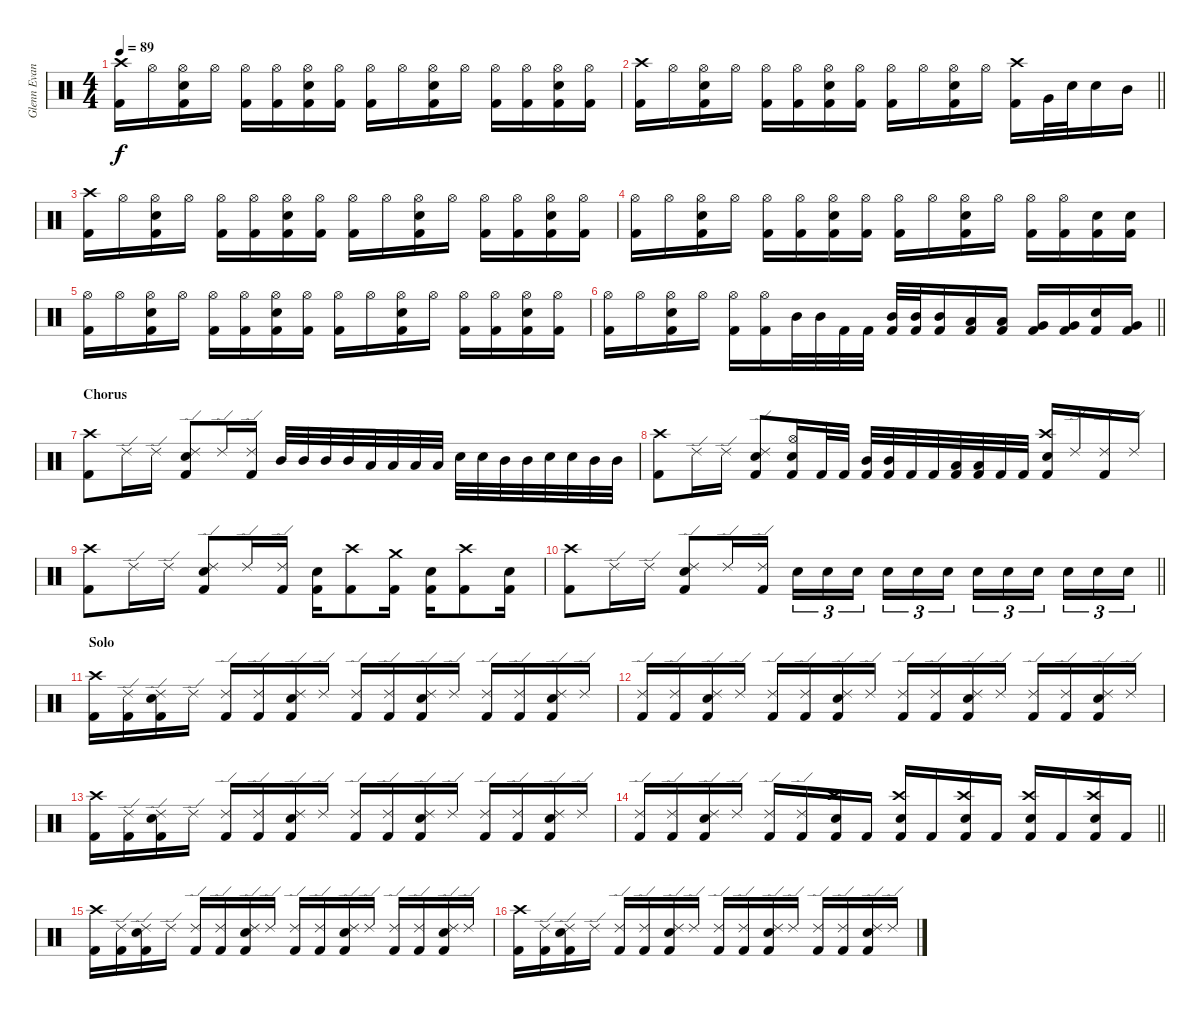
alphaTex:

\track ("Glenn Evans (Drums)" "Glenn Evan") {instrument percussion}
\staff {score}
\articulation defaults
\ts (4 4)
\tempo 89
\clef neutral
\ks c
("Kick (hit) 2" "Crash high (hit)").16{dy f} "Hi-Hat (open)".16 ("Kick (hit) 2" "Electric Snare (hit)" "Hi-Hat (open)").16 "Hi-Hat (open)".16 ("Kick (hit) 2" "Hi-Hat (open)").16 ("Kick (hit) 2" "Hi-Hat (open)").16 ("Kick (hit) 2" "Electric Snare (hit)" "Hi-Hat (open)").16 ("Kick (hit) 2" "Hi-Hat (open)").16 ("Kick (hit) 2" "Hi-Hat (open)").16 "Hi-Hat (open)".16 ("Kick (hit) 2" "Electric Snare (hit)" "Hi-Hat (open)").16 "Hi-Hat (open)".16 ("Kick (hit) 2" "Hi-Hat (open)").16 ("Kick (hit) 2" "Hi-Hat (open)").16 ("Kick (hit) 2" "Electric Snare (hit)" "Hi-Hat (open)").16 ("Kick (hit) 2" "Hi-Hat (open)").16 |
\barLineRight lightlight
("Kick (hit) 2" "Crash high (hit)").16 "Hi-Hat (open)".16 ("Kick (hit) 2" "Electric Snare (hit)" "Hi-Hat (open)").16 "Hi-Hat (open)".16 ("Kick (hit) 2" "Hi-Hat (open)").16 ("Kick (hit) 2" "Hi-Hat (open)").16 ("Kick (hit) 2" "Electric Snare (hit)" "Hi-Hat (open)").16 ("Kick (hit) 2" "Hi-Hat (open)").16 ("Kick (hit) 2" "Hi-Hat (open)").16 "Hi-Hat (open)".16 ("Kick (hit) 2" "Electric Snare (hit)" "Hi-Hat (open)").16 "Hi-Hat (open)".16 ("Kick (hit) 2" "Crash high (hit)").16 "Very Low Tom (hit)".32 "Electric Snare (hit)".32 "Electric Snare (hit)".16 "Mid Tom (hit)".16 |
("Kick (hit) 2" "Crash high (hit)").16 "Hi-Hat (open)".16 ("Kick (hit) 2" "Electric Snare (hit)" "Hi-Hat (open)").16 "Hi-Hat (open)".16 ("Kick (hit) 2" "Hi-Hat (open)").16 ("Kick (hit) 2" "Hi-Hat (open)").16 ("Kick (hit) 2" "Electric Snare (hit)" "Hi-Hat (open)").16 ("Kick (hit) 2" "Hi-Hat (open)").16 ("Kick (hit) 2" "Hi-Hat (open)").16 "Hi-Hat (open)".16 ("Kick (hit) 2" "Electric Snare (hit)" "Hi-Hat (open)").16 "Hi-Hat (open)".16 ("Kick (hit) 2" "Hi-Hat (open)").16 ("Kick (hit) 2" "Hi-Hat (open)").16 ("Kick (hit) 2" "Electric Snare (hit)" "Hi-Hat (open)").16 ("Kick (hit) 2" "Hi-Hat (open)").16 |
("Kick (hit) 2" "Hi-Hat (open)").16 "Hi-Hat (open)".16 ("Kick (hit) 2" "Electric Snare (hit)" "Hi-Hat (open)").16 "Hi-Hat (open)".16 ("Kick (hit) 2" "Hi-Hat (open)").16 ("Kick (hit) 2" "Hi-Hat (open)").16 ("Kick (hit) 2" "Electric Snare (hit)" "Hi-Hat (open)").16 ("Kick (hit) 2" "Hi-Hat (open)").16 ("Kick (hit) 2" "Hi-Hat (open)").16 "Hi-Hat (open)".16 ("Kick (hit) 2" "Electric Snare (hit)" "Hi-Hat (open)").16 "Hi-Hat (open)".16 ("Kick (hit) 2" "Hi-Hat (open)").16 ("Kick (hit) 2" "Hi-Hat (open)").16 ("Kick (hit) 2" "Electric Snare (hit)").16 ("Kick (hit) 2" "Electric Snare (hit)").16 |
("Kick (hit) 2" "Hi-Hat (open)").16 "Hi-Hat (open)".16 ("Kick (hit) 2" "Electric Snare (hit)" "Hi-Hat (open)").16 "Hi-Hat (open)".16 ("Kick (hit) 2" "Hi-Hat (open)").16 ("Kick (hit) 2" "Hi-Hat (open)").16 ("Kick (hit) 2" "Electric Snare (hit)" "Hi-Hat (open)").16 ("Kick (hit) 2" "Hi-Hat (open)").16 ("Kick (hit) 2" "Hi-Hat (open)").16 "Hi-Hat (open)".16 ("Kick (hit) 2" "Electric Snare (hit)" "Hi-Hat (open)").16 "Hi-Hat (open)".16 ("Kick (hit) 2" "Hi-Hat (open)").16 ("Kick (hit) 2" "Hi-Hat (open)").16 ("Kick (hit) 2" "Electric Snare (hit)" "Hi-Hat (open)").16 ("Kick (hit) 2" "Hi-Hat (open)").16 |
\barLineRight lightlight
("Kick (hit) 2" "Hi-Hat (open)").16 "Hi-Hat (open)".16 ("Kick (hit) 2" "Electric Snare (hit)" "Hi-Hat (open)").16 "Hi-Hat (open)".16 ("Kick (hit) 2" "Hi-Hat (open)").16 ("Kick (hit) 2" "Hi-Hat (open)").16 "Mid Tom (hit)".32 "Mid Tom (hit)".32 "Kick (hit) 2".32 "Kick (hit) 2".32 ("Kick (hit) 2" "Mid Tom (hit)").32 ("Kick (hit) 2" "Mid Tom (hit)").32 ("Kick (hit) 2" "Mid Tom (hit)").16 ("Kick (hit) 2" "Low Tom (hit)").16 ("Kick (hit) 2" "Low Tom (hit)").16 ("Kick (hit) 2" "Very Low Tom (hit)").16 ("Kick (hit) 2" "Very Low Tom (hit)").16 ("Kick (hit) 2" "Electric Snare (hit)").16 ("Kick (hit) 2" "Very Low Tom (hit)").16 |
\section ("" "Chorus")
("Kick (hit) 2" "Crash high (hit)").8 "Ride (edge) 2".16 "Ride (edge) 2".16 ("Kick (hit) 2" "Electric Snare (hit)" "Ride (edge) 2").8 "Ride (edge) 2".16 ("Kick (hit) 2" "Ride (edge) 2").16 "Mid Tom (hit)".32 "Mid Tom (hit)".32 "Mid Tom (hit)".32 "Mid Tom (hit)".32 "Low Tom (hit)".32 "Low Tom (hit)".32 "Low Tom (hit)".32 "Low Tom (hit)".32 "Electric Snare (hit)".32 "Electric Snare (hit)".32 "Mid Tom (hit)".32 "Mid Tom (hit)".32 "Electric Snare (hit)".32 "Electric Snare (hit)".32 "Mid Tom (hit)".32 "Mid Tom (hit)".32 |
("Kick (hit) 2" "Crash high (hit)").8 "Ride (edge) 2".16 "Ride (edge) 2".16 ("Kick (hit) 2" "Electric Snare (hit)" "Ride (edge) 2").8 ("Kick (hit) 2" "Electric Snare (hit)" "Hi-Hat (open)").16 "Kick (hit) 2".32 "Kick (hit) 2".32 ("Kick (hit) 2" "Mid Tom (hit)").32 ("Kick (hit) 2" "Mid Tom (hit)").32 "Kick (hit) 2".32 "Kick (hit) 2".32 ("Kick (hit) 2" "Low Tom (hit)").32 ("Kick (hit) 2" "Low Tom (hit)").32 "Kick (hit) 2".32 "Kick (hit) 2".32 ("Kick (hit) 2" "Electric Snare (hit)" "Crash high (hit)").16 "Ride (edge) 2".16 ("Kick (hit) 2" "Ride (edge) 2").16 "Ride (edge) 2".16 |
("Kick (hit) 2" "Crash high (hit)").8 "Ride (edge) 2".16 "Ride (edge) 2".16 ("Kick (hit) 2" "Electric Snare (hit)" "Ride (edge) 2").8 "Ride (edge) 2".16 ("Kick (hit) 2" "Ride (edge) 2").16 ("Kick (hit) 2" "Electric Snare (hit)").16 ("Kick (hit) 2" "Crash high (hit)").8 ("Kick (hit) 2" "Crash medium (hit)").16 ("Kick (hit) 2" "Electric Snare (hit)").16 ("Kick (hit) 2" "Crash high (hit)").8 ("Kick (hit) 2" "Electric Snare (hit)").16 |
\barLineRight lightlight
("Kick (hit) 2" "Crash high (hit)").8 "Ride (edge) 2".16 "Ride (edge) 2".16 ("Kick (hit) 2" "Electric Snare (hit)" "Ride (edge) 2").8 "Ride (edge) 2".16 ("Kick (hit) 2" "Ride (edge) 2").16 "Electric Snare (hit)".16{tu (3 2)} "Electric Snare (hit)".16{tu (3 2)} "Electric Snare (hit)".16{tu (3 2) beam splitsecondary} "Electric Snare (hit)".16{tu (3 2)} "Electric Snare (hit)".16{tu (3 2)} "Electric Snare (hit)".16{tu (3 2)} "Electric Snare (hit)".16{tu (3 2)} "Electric Snare (hit)".16{tu (3 2)} "Electric Snare (hit)".16{tu (3 2) beam splitsecondary} "Electric Snare (hit)".16{tu (3 2)} "Electric Snare (hit)".16{tu (3 2)} "Electric Snare (hit)".16{tu (3 2)} |
\section ("" "Solo")
("Kick (hit) 2" "Crash high (hit)").16 ("Kick (hit) 2" "Ride (edge) 2").16 ("Kick (hit) 2" "Electric Snare (hit)" "Ride (edge) 2").16 "Ride (edge) 2".16 ("Kick (hit) 2" "Ride (edge) 2").16 ("Kick (hit) 2" "Ride (edge) 2").16 ("Kick (hit) 2" "Electric Snare (hit)" "Ride (edge) 2").16 "Ride (edge) 2".16 ("Kick (hit) 2" "Ride (edge) 2").16 ("Kick (hit) 2" "Ride (edge) 2").16 ("Kick (hit) 2" "Electric Snare (hit)" "Ride (edge) 2").16 "Ride (edge) 2".16 ("Kick (hit) 2" "Ride (edge) 2").16 ("Kick (hit) 2" "Ride (edge) 2").16 ("Kick (hit) 2" "Electric Snare (hit)" "Ride (edge) 2").16 "Ride (edge) 2".16 |
("Kick (hit) 2" "Ride (edge) 2").16 ("Kick (hit) 2" "Ride (edge) 2").16 ("Kick (hit) 2" "Electric Snare (hit)" "Ride (edge) 2").16 "Ride (edge) 2".16 ("Kick (hit) 2" "Ride (edge) 2").16 ("Kick (hit) 2" "Ride (edge) 2").16 ("Kick (hit) 2" "Electric Snare (hit)" "Ride (edge) 2").16 "Ride (edge) 2".16 ("Kick (hit) 2" "Ride (edge) 2").16 ("Kick (hit) 2" "Ride (edge) 2").16 ("Kick (hit) 2" "Electric Snare (hit)" "Ride (edge) 2").16 "Ride (edge) 2".16 ("Kick (hit) 2" "Ride (edge) 2").16 ("Kick (hit) 2" "Ride (edge) 2").16 ("Kick (hit) 2" "Electric Snare (hit)" "Ride (edge) 2").16 "Ride (edge) 2".16 |
("Kick (hit) 2" "Crash high (hit)").16 ("Kick (hit) 2" "Ride (edge) 2").16 ("Kick (hit) 2" "Electric Snare (hit)" "Ride (edge) 2").16 "Ride (edge) 2".16 ("Kick (hit) 2" "Ride (edge) 2").16 ("Kick (hit) 2" "Ride (edge) 2").16 ("Kick (hit) 2" "Electric Snare (hit)" "Ride (edge) 2").16 "Ride (edge) 2".16 ("Kick (hit) 2" "Ride (edge) 2").16 ("Kick (hit) 2" "Ride (edge) 2").16 ("Kick (hit) 2" "Electric Snare (hit)" "Ride (edge) 2").16 "Ride (edge) 2".16 ("Kick (hit) 2" "Ride (edge) 2").16 ("Kick (hit) 2" "Ride (edge) 2").16 ("Kick (hit) 2" "Electric Snare (hit)" "Ride (edge) 2").16 "Ride (edge) 2".16 |
\barLineRight lightlight
("Kick (hit) 2" "Ride (edge) 2").16 ("Kick (hit) 2" "Ride (edge) 2").16 ("Kick (hit) 2" "Electric Snare (hit)" "Ride (edge) 2").16 "Ride (edge) 2".16 ("Kick (hit) 2" "Ride (edge) 2").16 ("Kick (hit) 2" "Ride (edge) 2").16 ("Kick (hit) 2" "Electric Snare (hit)" "Crash high (hit)").16 "Kick (hit) 2".16 ("Kick (hit) 2" "Electric Snare (hit)" "Crash high (hit)").16 "Kick (hit) 2".16 ("Kick (hit) 2" "Electric Snare (hit)" "Crash high (hit)").16 "Kick (hit) 2".16 ("Kick (hit) 2" "Electric Snare (hit)" "Crash high (hit)").16 "Kick (hit) 2".16 ("Kick (hit) 2" "Electric Snare (hit)" "Crash high (hit)").16 "Kick (hit) 2".16 |
("Kick (hit) 2" "Crash high (hit)").16 ("Kick (hit) 2" "Ride (edge) 2").16 ("Kick (hit) 2" "Electric Snare (hit)" "Ride (edge) 2").16 "Ride (edge) 2".16 ("Kick (hit) 2" "Ride (edge) 2").16 ("Kick (hit) 2" "Ride (edge) 2").16 ("Kick (hit) 2" "Electric Snare (hit)" "Ride (edge) 2").16 "Ride (edge) 2".16 ("Kick (hit) 2" "Ride (edge) 2").16 ("Kick (hit) 2" "Ride (edge) 2").16 ("Kick (hit) 2" "Electric Snare (hit)" "Ride (edge) 2").16 "Ride (edge) 2".16 ("Kick (hit) 2" "Ride (edge) 2").16 ("Kick (hit) 2" "Ride (edge) 2").16 ("Kick (hit) 2" "Electric Snare (hit)" "Ride (edge) 2").16 "Ride (edge) 2".16 |
("Kick (hit) 2" "Crash high (hit)").16 ("Kick (hit) 2" "Ride (edge) 2").16 ("Kick (hit) 2" "Electric Snare (hit)" "Ride (edge) 2").16 "Ride (edge) 2".16 ("Kick (hit) 2" "Ride (edge) 2").16 ("Kick (hit) 2" "Ride (edge) 2").16 ("Kick (hit) 2" "Electric Snare (hit)" "Ride (edge) 2").16 "Ride (edge) 2".16 ("Kick (hit) 2" "Ride (edge) 2").16 ("Kick (hit) 2" "Ride (edge) 2").16 ("Kick (hit) 2" "Electric Snare (hit)" "Ride (edge) 2").16 "Ride (edge) 2".16 ("Kick (hit) 2" "Ride (edge) 2").16 ("Kick (hit) 2" "Ride (edge) 2").16 ("Kick (hit) 2" "Electric Snare (hit)" "Ride (edge) 2").16 "Ride (edge) 2".16
